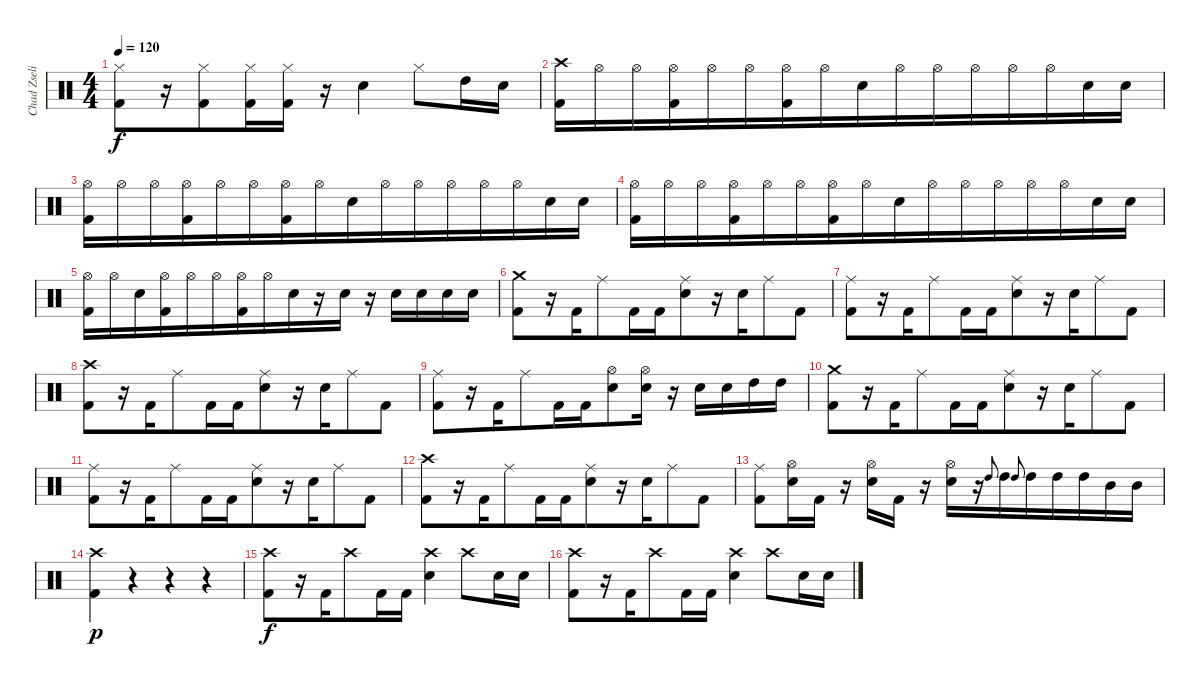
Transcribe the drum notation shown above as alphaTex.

\track ("Chad Zseliga (Drums)" "Chad Zseli") {instrument percussion}
\staff {score}
\articulation defaults
\ts (4 4)
\tempo 120
\clef neutral
\ks c
("Hi-Hat (closed)" "Kick (hit) 2").8{dy f} r.16 ("Hi-Hat (closed)" "Kick (hit) 2").8{beam merge} ("Hi-Hat (closed)" "Kick (hit) 2").16 ("Hi-Hat (closed)" "Kick (hit) 2").16 r.16 "Snare (hit) 2".4 "Hi-Hat (closed)".8 "High Tom (hit)".16 "Snare (hit) 2".16 |
("Crash high (hit)" "Kick (hit) 2").16 "Hi-Hat (open)".16 "Hi-Hat (open)".16 ("Hi-Hat (open)" "Kick (hit) 2").16{beam merge} "Hi-Hat (open)".16 "Hi-Hat (open)".16 ("Hi-Hat (open)" "Kick (hit) 2").16 "Hi-Hat (open)".16{beam merge} "Snare (hit) 2".16 "Hi-Hat (open)".16 "Hi-Hat (open)".16 "Hi-Hat (open)".16{beam merge} "Hi-Hat (open)".16 "Hi-Hat (open)".16 "Snare (hit) 2".16 "Snare (hit) 2".16 |
("Hi-Hat (open)" "Kick (hit) 2").16 "Hi-Hat (open)".16 "Hi-Hat (open)".16 ("Hi-Hat (open)" "Kick (hit) 2").16{beam merge} "Hi-Hat (open)".16 "Hi-Hat (open)".16 ("Hi-Hat (open)" "Kick (hit) 2").16 "Hi-Hat (open)".16{beam merge} "Snare (hit) 2".16 "Hi-Hat (open)".16 "Hi-Hat (open)".16 "Hi-Hat (open)".16{beam merge} "Hi-Hat (open)".16 "Hi-Hat (open)".16 "Snare (hit) 2".16 "Snare (hit) 2".16 |
("Hi-Hat (open)" "Kick (hit) 2").16 "Hi-Hat (open)".16 "Hi-Hat (open)".16 ("Hi-Hat (open)" "Kick (hit) 2").16{beam merge} "Hi-Hat (open)".16 "Hi-Hat (open)".16 ("Hi-Hat (open)" "Kick (hit) 2").16 "Hi-Hat (open)".16{beam merge} "Snare (hit) 2".16 "Hi-Hat (open)".16 "Hi-Hat (open)".16 "Hi-Hat (open)".16{beam merge} "Hi-Hat (open)".16 "Hi-Hat (open)".16 "Snare (hit) 2".16 "Snare (hit) 2".16 |
("Hi-Hat (open)" "Kick (hit) 2").16 "Hi-Hat (open)".16 "Snare (hit) 2".16 ("Hi-Hat (open)" "Kick (hit) 2").16{beam merge} "Hi-Hat (open)".16 "Hi-Hat (open)".16 ("Hi-Hat (open)" "Kick (hit) 2").16 "Hi-Hat (open)".16{beam merge} "Snare (hit) 2".16 r.16 "Snare (hit) 2".16 r.16 "Snare (hit) 2".16 "Snare (hit) 2".16 "Snare (hit) 2".16 "Snare (hit) 2".16 |
("Crash medium (hit)" "Kick (hit) 2").8 r.16 "Kick (hit) 2".16{beam merge} "Ride (middle)".8 "Kick (hit) 2".16 "Kick (hit) 2".16{beam merge} ("Ride (middle)" "Snare (hit) 2").8 r.16 "Snare (hit) 2".16{beam merge} "Ride (middle)".8 "Kick (hit) 2".8 |
("Ride (middle)" "Kick (hit) 2").8 r.16 "Kick (hit) 2".16{beam merge} "Ride (middle)".8 "Kick (hit) 2".16 "Kick (hit) 2".16{beam merge} ("Ride (middle)" "Snare (hit) 2").8 r.16 "Snare (hit) 2".16{beam merge} "Ride (middle)".8 "Kick (hit) 2".8 |
("Crash high (hit)" "Kick (hit) 2").8 r.16 "Kick (hit) 2".16{beam merge} "Ride (middle)".8 "Kick (hit) 2".16 "Kick (hit) 2".16{beam merge} ("Ride (middle)" "Snare (hit) 2").8 r.16 "Snare (hit) 2".16{beam merge} "Ride (middle)".8 "Kick (hit) 2".8 |
("Ride (middle)" "Kick (hit) 2").8 r.16 "Kick (hit) 2".16{beam merge} "Ride (middle)".8 "Kick (hit) 2".16 "Kick (hit) 2".16{beam merge} ("Hi-Hat (open)" "Snare (hit) 2").8 ("Hi-Hat (open)" "Snare (hit) 2").16 r.16 "Snare (hit) 2".16 "Snare (hit) 2".16 "High Tom (hit)".16 "High Tom (hit)".16 |
("Crash medium (hit)" "Kick (hit) 2").8 r.16 "Kick (hit) 2".16{beam merge} "Ride (middle)".8 "Kick (hit) 2".16 "Kick (hit) 2".16{beam merge} ("Ride (middle)" "Snare (hit) 2").8 r.16 "Snare (hit) 2".16{beam merge} "Ride (middle)".8 "Kick (hit) 2".8 |
("Ride (middle)" "Kick (hit) 2").8 r.16 "Kick (hit) 2".16{beam merge} "Ride (middle)".8 "Kick (hit) 2".16 "Kick (hit) 2".16{beam merge} ("Ride (middle)" "Snare (hit) 2").8 r.16 "Snare (hit) 2".16{beam merge} "Ride (middle)".8 "Kick (hit) 2".8 |
("Crash high (hit)" "Kick (hit) 2").8 r.16 "Kick (hit) 2".16{beam merge} "Ride (middle)".8 "Kick (hit) 2".16 "Kick (hit) 2".16{beam merge} ("Ride (middle)" "Snare (hit) 2").8 r.16 "Snare (hit) 2".16{beam merge} "Ride (middle)".8 "Kick (hit) 2".8 |
("Ride (middle)" "Kick (hit) 2").8 ("Hi-Hat (open)" "Snare (hit) 2").16 "Kick (hit) 2".16 r.16 ("Hi-Hat (open)" "Snare (hit) 2").16 "Kick (hit) 2".16 r.16 ("Hi-Hat (open)" "Snare (hit) 2").16 r.16 "High Tom (hit)".8{gr onbeat} "High Tom (hit)".16 "High Tom (hit)".8{gr onbeat} "High Tom (hit)".16{beam merge} "High Tom (hit)".16 "High Tom (hit)".16 "Mid Tom (hit)".16 "Mid Tom (hit)".16 |
("Crash high (hit)" "Kick (hit) 2").4{dy p} r.4 r.4 r.4 |
("Crash high (hit)" "Kick (hit) 2").8{dy f} r.16 "Kick (hit) 2".16{beam merge} "Crash high (hit)".8 "Kick (hit) 2".16 "Kick (hit) 2".16 ("Crash high (hit)" "Snare (hit) 2").4 "Crash high (hit)".8 "Snare (hit) 2".16 "Snare (hit) 2".16 |
("Crash high (hit)" "Kick (hit) 2").8 r.16 "Kick (hit) 2".16{beam merge} "Crash high (hit)".8 "Kick (hit) 2".16 "Kick (hit) 2".16 ("Crash high (hit)" "Snare (hit) 2").4 "Crash high (hit)".8 "Snare (hit) 2".16 "Snare (hit) 2".16
